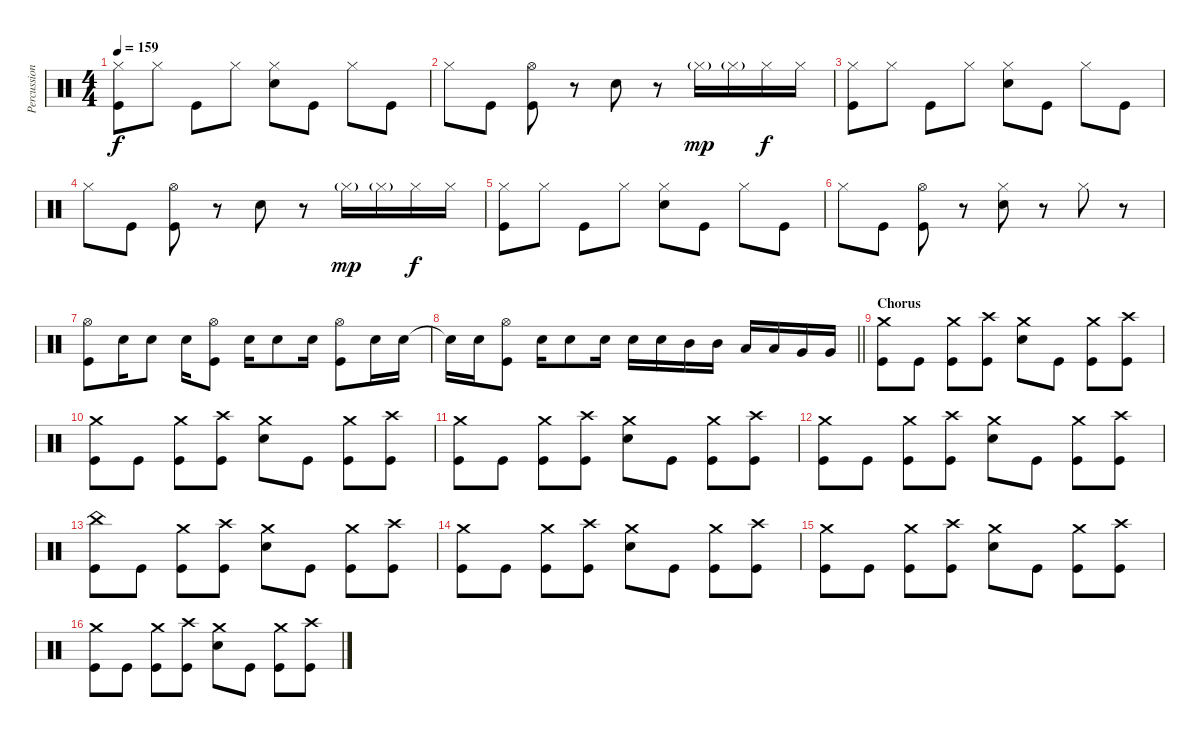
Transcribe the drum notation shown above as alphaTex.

\track ("Percussion" "Percussion") {instrument percussion}
\staff {score}
\articulation defaults
\ts (4 4)
\tempo 159
\clef neutral
\ks c
("Hi-Hat (closed)" "Kick (hit)").8{dy f} "Hi-Hat (closed)".8 "Kick (hit)".8 "Hi-Hat (closed)".8 ("Hi-Hat (closed)" "Snare (hit) 2").8 "Kick (hit)".8 "Hi-Hat (closed)".8 "Kick (hit)".8 |
"Hi-Hat (closed)".8 "Kick (hit)".8 ("Hi-Hat (open)" "Kick (hit)").8 r.8 "Snare (hit) 2".8 r.8 "Hi-Hat (closed)"{g}.16{dy mp} "Hi-Hat (closed)"{g}.16 "Hi-Hat (closed)".16{dy f} "Hi-Hat (closed)".16 |
("Hi-Hat (closed)" "Kick (hit)").8 "Hi-Hat (closed)".8 "Kick (hit)".8 "Hi-Hat (closed)".8 ("Hi-Hat (closed)" "Snare (hit) 2").8 "Kick (hit)".8 "Hi-Hat (closed)".8 "Kick (hit)".8 |
"Hi-Hat (closed)".8 "Kick (hit)".8 ("Hi-Hat (open)" "Kick (hit)").8 r.8 "Snare (hit) 2".8 r.8 "Hi-Hat (closed)"{g}.16{dy mp} "Hi-Hat (closed)"{g}.16 "Hi-Hat (closed)".16{dy f} "Hi-Hat (closed)".16 |
("Hi-Hat (closed)" "Kick (hit)").8 "Hi-Hat (closed)".8 "Kick (hit)".8 "Hi-Hat (closed)".8 ("Hi-Hat (closed)" "Snare (hit) 2").8 "Kick (hit)".8 "Hi-Hat (closed)".8 "Kick (hit)".8 |
"Hi-Hat (closed)".8 "Kick (hit)".8 ("Hi-Hat (open)" "Kick (hit)").8 r.8 ("Hi-Hat (closed)" "Snare (hit) 2").8 r.8 "Hi-Hat (closed)".8 r.8 |
("Hi-Hat (open)" "Kick (hit)").8 "Snare (hit) 2".16 "Snare (hit) 2".8 "Snare (hit) 2".16 ("Hi-Hat (open)" "Kick (hit)").8 "Snare (hit) 2".16 "Snare (hit) 2".8 "Snare (hit) 2".16 ("Hi-Hat (open)" "Kick (hit)").8 "Snare (hit) 2".16 "Snare (hit) 2".16 |
\barLineRight lightlight "Snare (hit)"{t}.16 "Snare (hit) 2".16
("Hi-Hat (open)" "Kick (hit)").8 "Snare (hit) 2".16 "Snare (hit) 2".8 "Snare (hit) 2".16 "Snare (hit) 2".16 "Snare (hit) 2".16 "Mid Tom (hit)".16 "Mid Tom (hit)".16 "Low Tom (hit)".16 "Low Tom (hit)".16 "Very Low Tom (hit)".16 "Very Low Tom (hit)".16 |
\section ("" "Chorus")
("Crash medium (hit)" "Kick (hit)").8 "Kick (hit)".8 ("Crash medium (hit)" "Kick (hit)").8 ("Crash high (hit)" "Kick (hit)").8 ("Crash medium (hit)" "Snare (hit) 2").8 "Kick (hit)".8 ("Crash medium (hit)" "Kick (hit)").8 ("Crash high (hit)" "Kick (hit)").8 |
("Crash medium (hit)" "Kick (hit)").8 "Kick (hit)".8 ("Crash medium (hit)" "Kick (hit)").8 ("Crash high (hit)" "Kick (hit)").8 ("Crash medium (hit)" "Snare (hit) 2").8 "Kick (hit)".8 ("Crash medium (hit)" "Kick (hit)").8 ("Crash high (hit)" "Kick (hit)").8 |
("Crash medium (hit)" "Kick (hit)").8 "Kick (hit)".8 ("Crash medium (hit)" "Kick (hit)").8 ("Crash high (hit)" "Kick (hit)").8 ("Crash medium (hit)" "Snare (hit) 2").8 "Kick (hit)".8 ("Crash medium (hit)" "Kick (hit)").8 ("Crash high (hit)" "Kick (hit)").8 |
("Crash medium (hit)" "Kick (hit)").8 "Kick (hit)".8 ("Crash medium (hit)" "Kick (hit)").8 ("Crash high (hit)" "Kick (hit)").8 ("Crash medium (hit)" "Snare (hit) 2").8 "Kick (hit)".8 ("Crash medium (hit)" "Kick (hit)").8 ("Crash high (hit)" "Kick (hit)").8 |
("China (hit)" "Kick (hit)").8 "Kick (hit)".8 ("Crash medium (hit)" "Kick (hit)").8 ("Crash high (hit)" "Kick (hit)").8 ("Crash medium (hit)" "Snare (hit) 2").8 "Kick (hit)".8 ("Crash medium (hit)" "Kick (hit)").8 ("Crash high (hit)" "Kick (hit)").8 |
("Crash medium (hit)" "Kick (hit)").8 "Kick (hit)".8 ("Crash medium (hit)" "Kick (hit)").8 ("Crash high (hit)" "Kick (hit)").8 ("Crash medium (hit)" "Snare (hit) 2").8 "Kick (hit)".8 ("Crash medium (hit)" "Kick (hit)").8 ("Crash high (hit)" "Kick (hit)").8 |
("Crash medium (hit)" "Kick (hit)").8 "Kick (hit)".8 ("Crash medium (hit)" "Kick (hit)").8 ("Crash high (hit)" "Kick (hit)").8 ("Crash medium (hit)" "Snare (hit) 2").8 "Kick (hit)".8 ("Crash medium (hit)" "Kick (hit)").8 ("Crash high (hit)" "Kick (hit)").8 |
("Crash medium (hit)" "Kick (hit)").8 "Kick (hit)".8 ("Crash medium (hit)" "Kick (hit)").8 ("Crash high (hit)" "Kick (hit)").8 ("Crash medium (hit)" "Snare (hit) 2").8 "Kick (hit)".8 ("Crash medium (hit)" "Kick (hit)").8 ("Crash high (hit)" "Kick (hit)").8
